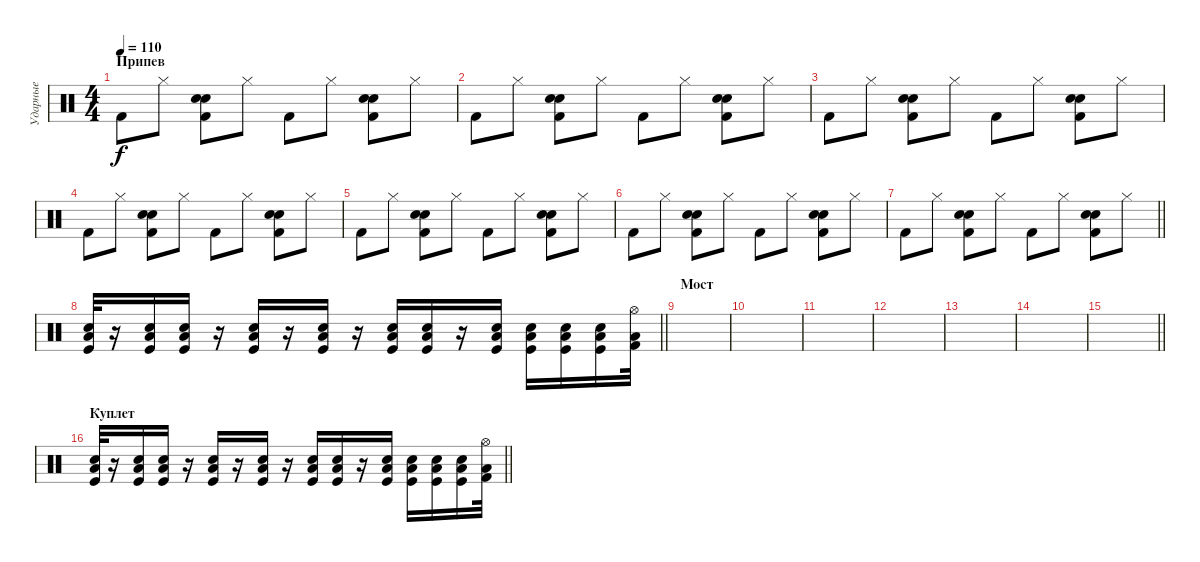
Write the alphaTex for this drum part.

\track ("Ударные" "Ударные") {instrument percussion}
\staff {score}
\articulation defaults
\ts (4 4)
\section ("" "Припев ")
\tempo 110
\clef neutral
\ks c "Kick (hit) 2".8{dy f} "Hi-Hat (closed)".8
("Hand Clap (hit)" "Kick (hit) 2" "Electric Snare (hit)").8 "Hi-Hat (closed)".8 "Kick (hit) 2".8 "Hi-Hat (closed)".8 ("Hand Clap (hit)" "Kick (hit) 2" "Electric Snare (hit)").8 "Hi-Hat (closed)".8 |
"Kick (hit) 2".8 "Hi-Hat (closed)".8 ("Hand Clap (hit)" "Kick (hit) 2" "Electric Snare (hit)").8 "Hi-Hat (closed)".8 "Kick (hit) 2".8 "Hi-Hat (closed)".8 ("Hand Clap (hit)" "Kick (hit) 2" "Electric Snare (hit)").8 "Hi-Hat (closed)".8 |
"Kick (hit) 2".8 "Hi-Hat (closed)".8 ("Hand Clap (hit)" "Kick (hit) 2" "Electric Snare (hit)").8 "Hi-Hat (closed)".8 "Kick (hit) 2".8 "Hi-Hat (closed)".8 ("Hand Clap (hit)" "Kick (hit) 2" "Electric Snare (hit)").8 "Hi-Hat (closed)".8 |
"Kick (hit) 2".8 "Hi-Hat (closed)".8 ("Hand Clap (hit)" "Kick (hit) 2" "Electric Snare (hit)").8 "Hi-Hat (closed)".8 "Kick (hit) 2".8 "Hi-Hat (closed)".8 ("Hand Clap (hit)" "Kick (hit) 2" "Electric Snare (hit)").8 "Hi-Hat (closed)".8 |
"Kick (hit) 2".8 "Hi-Hat (closed)".8 ("Hand Clap (hit)" "Kick (hit) 2" "Electric Snare (hit)").8 "Hi-Hat (closed)".8 "Kick (hit) 2".8 "Hi-Hat (closed)".8 ("Hand Clap (hit)" "Kick (hit) 2" "Electric Snare (hit)").8 "Hi-Hat (closed)".8 |
"Kick (hit) 2".8 "Hi-Hat (closed)".8 ("Hand Clap (hit)" "Kick (hit) 2" "Electric Snare (hit)").8 "Hi-Hat (closed)".8 "Kick (hit) 2".8 "Hi-Hat (closed)".8 ("Hand Clap (hit)" "Kick (hit) 2" "Electric Snare (hit)").8 "Hi-Hat (closed)".8 |
\barLineRight lightlight "Kick (hit) 2".8 "Hi-Hat (closed)".8
("Hand Clap (hit)" "Kick (hit) 2" "Electric Snare (hit)").8 "Hi-Hat (closed)".8 "Kick (hit) 2".8 "Hi-Hat (closed)".8 ("Hand Clap (hit)" "Kick (hit) 2" "Electric Snare (hit)").8 "Hi-Hat (closed)".8 |
\barLineRight lightlight
("Low Floor Tom (hit)" "Kick (hit)" "Electric Snare (hit)").32 r.16 ("Low Floor Tom (hit)" "Kick (hit)" "Electric Snare (hit)").16 ("Low Floor Tom (hit)" "Kick (hit)" "Electric Snare (hit)").16 r.16 ("Low Floor Tom (hit)" "Kick (hit)" "Electric Snare (hit)").16 r.16 ("Low Floor Tom (hit)" "Kick (hit)" "Electric Snare (hit)").16 r.16 ("Low Floor Tom (hit)" "Kick (hit)" "Electric Snare (hit)").16 ("Low Floor Tom (hit)" "Kick (hit)" "Electric Snare (hit)").16 r.16 ("Low Floor Tom (hit)" "Kick (hit)" "Electric Snare (hit)").16 ("Low Floor Tom (hit)" "Kick (hit)" "Electric Snare (hit)").16 ("Low Floor Tom (hit)" "Kick (hit)" "Electric Snare (hit)").16 ("Low Floor Tom (hit)" "Kick (hit)" "Electric Snare (hit)").16 ("Low Floor Tom (hit)" "Hi-Hat (open)" "Kick (hit) 2").32 |
\section ("" "Мост")
|
|
|
|
|
|
\barLineRight lightlight
|
\section ("" "Куплет")
\barLineRight lightlight
("Low Floor Tom (hit)" "Kick (hit)" "Electric Snare (hit)").32 r.16 ("Low Floor Tom (hit)" "Kick (hit)" "Electric Snare (hit)").16 ("Low Floor Tom (hit)" "Kick (hit)" "Electric Snare (hit)").16 r.16 ("Low Floor Tom (hit)" "Kick (hit)" "Electric Snare (hit)").16 r.16 ("Low Floor Tom (hit)" "Kick (hit)" "Electric Snare (hit)").16 r.16 ("Low Floor Tom (hit)" "Kick (hit)" "Electric Snare (hit)").16 ("Low Floor Tom (hit)" "Kick (hit)" "Electric Snare (hit)").16 r.16 ("Low Floor Tom (hit)" "Kick (hit)" "Electric Snare (hit)").16 ("Low Floor Tom (hit)" "Kick (hit)" "Electric Snare (hit)").16 ("Low Floor Tom (hit)" "Kick (hit)" "Electric Snare (hit)").16 ("Low Floor Tom (hit)" "Kick (hit)" "Electric Snare (hit)").16 ("Low Floor Tom (hit)" "Hi-Hat (open)" "Kick (hit) 2").32
